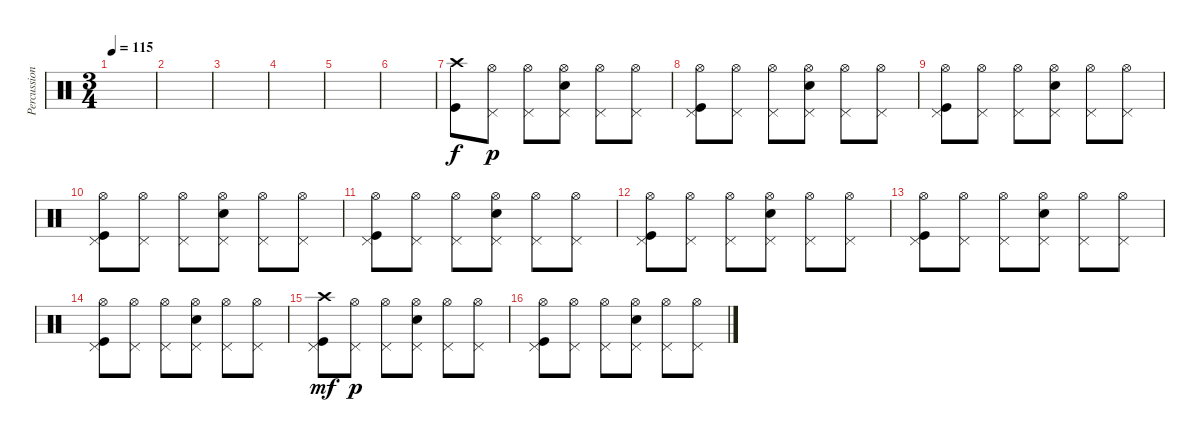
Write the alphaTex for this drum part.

\track ("Percussions" "Percussion") {instrument percussion}
\staff {score}
\articulation defaults
\ts (3 4)
\tempo 115
\clef neutral
\ks c
|
|
|
|
|
|
("Kick (hit)" "Crash high (hit)").8 ("Pedal Hi-Hat (hit)" "Hi-Hat (open)").8{dy p} ("Pedal Hi-Hat (hit)" "Hi-Hat (open)").8 ("Electric Snare (hit)" "Pedal Hi-Hat (hit)" "Hi-Hat (open)").8 ("Pedal Hi-Hat (hit)" "Hi-Hat (open)").8 ("Pedal Hi-Hat (hit)" "Hi-Hat (open)").8 |
("Kick (hit)" "Pedal Hi-Hat (hit)" "Hi-Hat (open)").8 ("Pedal Hi-Hat (hit)" "Hi-Hat (open)").8 ("Pedal Hi-Hat (hit)" "Hi-Hat (open)").8 ("Electric Snare (hit)" "Pedal Hi-Hat (hit)" "Hi-Hat (open)").8 ("Pedal Hi-Hat (hit)" "Hi-Hat (open)").8 ("Pedal Hi-Hat (hit)" "Hi-Hat (open)").8 |
("Kick (hit)" "Pedal Hi-Hat (hit)" "Hi-Hat (open)").8 ("Pedal Hi-Hat (hit)" "Hi-Hat (open)").8 ("Pedal Hi-Hat (hit)" "Hi-Hat (open)").8 ("Electric Snare (hit)" "Pedal Hi-Hat (hit)" "Hi-Hat (open)").8 ("Pedal Hi-Hat (hit)" "Hi-Hat (open)").8 ("Pedal Hi-Hat (hit)" "Hi-Hat (open)").8 |
("Kick (hit)" "Pedal Hi-Hat (hit)" "Hi-Hat (open)").8 ("Pedal Hi-Hat (hit)" "Hi-Hat (open)").8 ("Pedal Hi-Hat (hit)" "Hi-Hat (open)").8 ("Electric Snare (hit)" "Pedal Hi-Hat (hit)" "Hi-Hat (open)").8 ("Pedal Hi-Hat (hit)" "Hi-Hat (open)").8 ("Pedal Hi-Hat (hit)" "Hi-Hat (open)").8 |
("Kick (hit)" "Pedal Hi-Hat (hit)" "Hi-Hat (open)").8 ("Pedal Hi-Hat (hit)" "Hi-Hat (open)").8 ("Pedal Hi-Hat (hit)" "Hi-Hat (open)").8 ("Electric Snare (hit)" "Pedal Hi-Hat (hit)" "Hi-Hat (open)").8 ("Pedal Hi-Hat (hit)" "Hi-Hat (open)").8 ("Pedal Hi-Hat (hit)" "Hi-Hat (open)").8 |
("Kick (hit)" "Pedal Hi-Hat (hit)" "Hi-Hat (open)").8 ("Pedal Hi-Hat (hit)" "Hi-Hat (open)").8 ("Pedal Hi-Hat (hit)" "Hi-Hat (open)").8 ("Electric Snare (hit)" "Pedal Hi-Hat (hit)" "Hi-Hat (open)").8 ("Pedal Hi-Hat (hit)" "Hi-Hat (open)").8 ("Pedal Hi-Hat (hit)" "Hi-Hat (open)").8 |
("Kick (hit)" "Pedal Hi-Hat (hit)" "Hi-Hat (open)").8 ("Pedal Hi-Hat (hit)" "Hi-Hat (open)").8 ("Pedal Hi-Hat (hit)" "Hi-Hat (open)").8 ("Electric Snare (hit)" "Pedal Hi-Hat (hit)" "Hi-Hat (open)").8 ("Pedal Hi-Hat (hit)" "Hi-Hat (open)").8 ("Pedal Hi-Hat (hit)" "Hi-Hat (open)").8 |
("Kick (hit)" "Pedal Hi-Hat (hit)" "Hi-Hat (open)").8 ("Pedal Hi-Hat (hit)" "Hi-Hat (open)").8 ("Pedal Hi-Hat (hit)" "Hi-Hat (open)").8 ("Electric Snare (hit)" "Pedal Hi-Hat (hit)" "Hi-Hat (open)").8 ("Pedal Hi-Hat (hit)" "Hi-Hat (open)").8 ("Pedal Hi-Hat (hit)" "Hi-Hat (open)").8 |
("Kick (hit)" "Pedal Hi-Hat (hit)" "Crash high (hit)").8{dy mf} ("Pedal Hi-Hat (hit)" "Hi-Hat (open)").8{dy p} ("Pedal Hi-Hat (hit)" "Hi-Hat (open)").8 ("Electric Snare (hit)" "Pedal Hi-Hat (hit)" "Hi-Hat (open)").8 ("Pedal Hi-Hat (hit)" "Hi-Hat (open)").8 ("Pedal Hi-Hat (hit)" "Hi-Hat (open)").8 |
("Kick (hit)" "Pedal Hi-Hat (hit)" "Hi-Hat (open)").8 ("Pedal Hi-Hat (hit)" "Hi-Hat (open)").8 ("Pedal Hi-Hat (hit)" "Hi-Hat (open)").8 ("Electric Snare (hit)" "Pedal Hi-Hat (hit)" "Hi-Hat (open)").8 ("Pedal Hi-Hat (hit)" "Hi-Hat (open)").8 ("Pedal Hi-Hat (hit)" "Hi-Hat (open)").8
